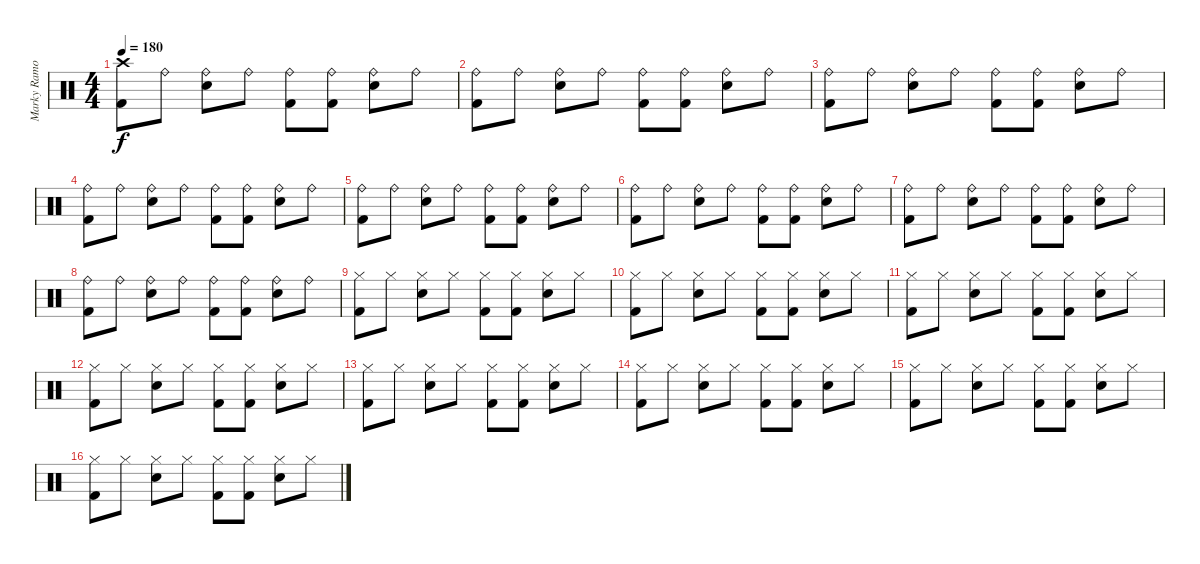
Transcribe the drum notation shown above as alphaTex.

\track ("Marky Ramone" "Marky Ramo") {instrument percussion}
\staff {score}
\articulation defaults
\ts (4 4)
\tempo 180
\clef neutral
\ks c
("Kick (hit) 2" "Crash high (hit)").8{dy f} "Ride (bell)".8 ("Electric Snare (hit)" "Ride (bell)").8 "Ride (bell)".8 ("Kick (hit) 2" "Ride (bell)").8 ("Kick (hit) 2" "Ride (bell)").8 ("Electric Snare (hit)" "Ride (bell)").8 "Ride (bell)".8 |
("Ride (bell)" "Kick (hit) 2").8 "Ride (bell)".8 ("Electric Snare (hit)" "Ride (bell)").8 "Ride (bell)".8 ("Ride (bell)" "Kick (hit) 2").8 ("Ride (bell)" "Kick (hit) 2").8 ("Electric Snare (hit)" "Ride (bell)").8 "Ride (bell)".8 |
("Kick (hit) 2" "Ride (bell)").8 "Ride (bell)".8 ("Electric Snare (hit)" "Ride (bell)").8 "Ride (bell)".8 ("Kick (hit) 2" "Ride (bell)").8 ("Kick (hit) 2" "Ride (bell)").8 ("Electric Snare (hit)" "Ride (bell)").8 "Ride (bell)".8 |
("Ride (bell)" "Kick (hit) 2").8 "Ride (bell)".8 ("Electric Snare (hit)" "Ride (bell)").8 "Ride (bell)".8 ("Ride (bell)" "Kick (hit) 2").8 ("Ride (bell)" "Kick (hit) 2").8 ("Electric Snare (hit)" "Ride (bell)").8 "Ride (bell)".8 |
("Kick (hit) 2" "Ride (bell)").8 "Ride (bell)".8 ("Electric Snare (hit)" "Ride (bell)").8 "Ride (bell)".8 ("Kick (hit) 2" "Ride (bell)").8 ("Kick (hit) 2" "Ride (bell)").8 ("Electric Snare (hit)" "Ride (bell)").8 "Ride (bell)".8 |
("Ride (bell)" "Kick (hit) 2").8 "Ride (bell)".8 ("Electric Snare (hit)" "Ride (bell)").8 "Ride (bell)".8 ("Ride (bell)" "Kick (hit) 2").8 ("Ride (bell)" "Kick (hit) 2").8 ("Electric Snare (hit)" "Ride (bell)").8 "Ride (bell)".8 |
("Kick (hit) 2" "Ride (bell)").8 "Ride (bell)".8 ("Electric Snare (hit)" "Ride (bell)").8 "Ride (bell)".8 ("Kick (hit) 2" "Ride (bell)").8 ("Kick (hit) 2" "Ride (bell)").8 ("Electric Snare (hit)" "Ride (bell)").8 "Ride (bell)".8 |
("Ride (bell)" "Kick (hit) 2").8 "Ride (bell)".8 ("Electric Snare (hit)" "Ride (bell)").8 "Ride (bell)".8 ("Ride (bell)" "Kick (hit) 2").8 ("Ride (bell)" "Kick (hit) 2").8 ("Electric Snare (hit)" "Ride (bell)").8 "Ride (bell)".8 |
("Kick (hit) 2" "Hi-Hat (closed)").8 "Hi-Hat (closed)".8 ("Electric Snare (hit)" "Hi-Hat (closed)").8 "Hi-Hat (closed)".8 ("Kick (hit) 2" "Hi-Hat (closed)").8 ("Kick (hit) 2" "Hi-Hat (closed)").8 ("Electric Snare (hit)" "Hi-Hat (closed)").8 "Hi-Hat (closed)".8 |
("Hi-Hat (closed)" "Kick (hit) 2").8 "Hi-Hat (closed)".8 ("Electric Snare (hit)" "Hi-Hat (closed)").8 "Hi-Hat (closed)".8 ("Hi-Hat (closed)" "Kick (hit) 2").8 ("Hi-Hat (closed)" "Kick (hit) 2").8 ("Electric Snare (hit)" "Hi-Hat (closed)").8 "Hi-Hat (closed)".8 |
("Kick (hit) 2" "Hi-Hat (closed)").8 "Hi-Hat (closed)".8 ("Electric Snare (hit)" "Hi-Hat (closed)").8 "Hi-Hat (closed)".8 ("Kick (hit) 2" "Hi-Hat (closed)").8 ("Kick (hit) 2" "Hi-Hat (closed)").8 ("Electric Snare (hit)" "Hi-Hat (closed)").8 "Hi-Hat (closed)".8 |
("Hi-Hat (closed)" "Kick (hit) 2").8 "Hi-Hat (closed)".8 ("Electric Snare (hit)" "Hi-Hat (closed)").8 "Hi-Hat (closed)".8 ("Hi-Hat (closed)" "Kick (hit) 2").8 ("Hi-Hat (closed)" "Kick (hit) 2").8 ("Electric Snare (hit)" "Hi-Hat (closed)").8 "Hi-Hat (closed)".8 |
("Kick (hit) 2" "Hi-Hat (closed)").8 "Hi-Hat (closed)".8 ("Electric Snare (hit)" "Hi-Hat (closed)").8 "Hi-Hat (closed)".8 ("Kick (hit) 2" "Hi-Hat (closed)").8 ("Kick (hit) 2" "Hi-Hat (closed)").8 ("Electric Snare (hit)" "Hi-Hat (closed)").8 "Hi-Hat (closed)".8 |
("Hi-Hat (closed)" "Kick (hit) 2").8 "Hi-Hat (closed)".8 ("Electric Snare (hit)" "Hi-Hat (closed)").8 "Hi-Hat (closed)".8 ("Hi-Hat (closed)" "Kick (hit) 2").8 ("Hi-Hat (closed)" "Kick (hit) 2").8 ("Electric Snare (hit)" "Hi-Hat (closed)").8 "Hi-Hat (closed)".8 |
("Kick (hit) 2" "Hi-Hat (closed)").8 "Hi-Hat (closed)".8 ("Electric Snare (hit)" "Hi-Hat (closed)").8 "Hi-Hat (closed)".8 ("Kick (hit) 2" "Hi-Hat (closed)").8 ("Kick (hit) 2" "Hi-Hat (closed)").8 ("Electric Snare (hit)" "Hi-Hat (closed)").8 "Hi-Hat (closed)".8 |
("Hi-Hat (closed)" "Kick (hit) 2").8 "Hi-Hat (closed)".8 ("Electric Snare (hit)" "Hi-Hat (closed)").8 "Hi-Hat (closed)".8 ("Hi-Hat (closed)" "Kick (hit) 2").8 ("Hi-Hat (closed)" "Kick (hit) 2").8 ("Electric Snare (hit)" "Hi-Hat (closed)").8 "Hi-Hat (closed)".8
